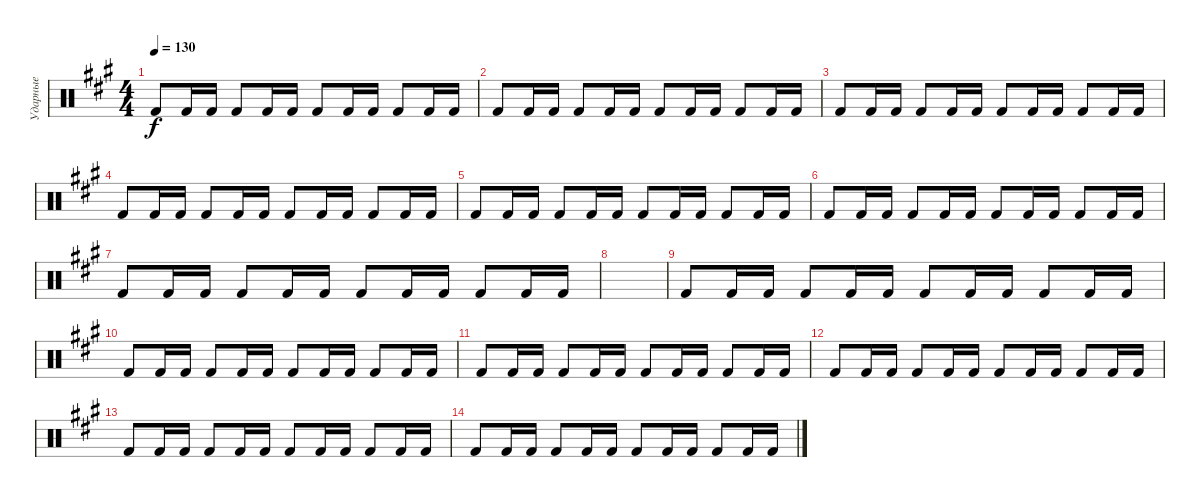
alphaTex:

\track ("Ударные" "Ударные") {instrument percussion}
\staff {score}
\articulation defaults
\ts (4 4)
\tempo 130
\clef neutral
\ks f#minor "Kick (hit) 2".8{dy f} "Kick (hit) 2".16 "Kick (hit) 2".16 "Kick (hit) 2".8 "Kick (hit) 2".16 "Kick (hit) 2".16 "Kick (hit) 2".8 "Kick (hit) 2".16 "Kick (hit) 2".16 "Kick (hit) 2".8 "Kick (hit) 2".16 "Kick (hit) 2".16
|
"Kick (hit) 2".8 "Kick (hit) 2".16 "Kick (hit) 2".16 "Kick (hit) 2".8 "Kick (hit) 2".16 "Kick (hit) 2".16 "Kick (hit) 2".8 "Kick (hit) 2".16 "Kick (hit) 2".16 "Kick (hit) 2".8 "Kick (hit) 2".16 "Kick (hit) 2".16 |
"Kick (hit) 2".8 "Kick (hit) 2".16 "Kick (hit) 2".16 "Kick (hit) 2".8 "Kick (hit) 2".16 "Kick (hit) 2".16 "Kick (hit) 2".8 "Kick (hit) 2".16 "Kick (hit) 2".16 "Kick (hit) 2".8 "Kick (hit) 2".16 "Kick (hit) 2".16 |
"Kick (hit) 2".8 "Kick (hit) 2".16 "Kick (hit) 2".16 "Kick (hit) 2".8 "Kick (hit) 2".16 "Kick (hit) 2".16 "Kick (hit) 2".8 "Kick (hit) 2".16 "Kick (hit) 2".16 "Kick (hit) 2".8 "Kick (hit) 2".16 "Kick (hit) 2".16 |
"Kick (hit) 2".8 "Kick (hit) 2".16 "Kick (hit) 2".16 "Kick (hit) 2".8 "Kick (hit) 2".16 "Kick (hit) 2".16 "Kick (hit) 2".8 "Kick (hit) 2".16 "Kick (hit) 2".16 "Kick (hit) 2".8 "Kick (hit) 2".16 "Kick (hit) 2".16 |
"Kick (hit) 2".8 "Kick (hit) 2".16 "Kick (hit) 2".16 "Kick (hit) 2".8 "Kick (hit) 2".16 "Kick (hit) 2".16 "Kick (hit) 2".8 "Kick (hit) 2".16 "Kick (hit) 2".16 "Kick (hit) 2".8 "Kick (hit) 2".16 "Kick (hit) 2".16 |
"Kick (hit) 2".8 "Kick (hit) 2".16 "Kick (hit) 2".16 "Kick (hit) 2".8 "Kick (hit) 2".16 "Kick (hit) 2".16 "Kick (hit) 2".8 "Kick (hit) 2".16 "Kick (hit) 2".16 "Kick (hit) 2".8 "Kick (hit) 2".16 "Kick (hit) 2".16 |
|
"Kick (hit) 2".8 "Kick (hit) 2".16 "Kick (hit) 2".16 "Kick (hit) 2".8 "Kick (hit) 2".16 "Kick (hit) 2".16 "Kick (hit) 2".8 "Kick (hit) 2".16 "Kick (hit) 2".16 "Kick (hit) 2".8 "Kick (hit) 2".16 "Kick (hit) 2".16 |
"Kick (hit) 2".8 "Kick (hit) 2".16 "Kick (hit) 2".16 "Kick (hit) 2".8 "Kick (hit) 2".16 "Kick (hit) 2".16 "Kick (hit) 2".8 "Kick (hit) 2".16 "Kick (hit) 2".16 "Kick (hit) 2".8 "Kick (hit) 2".16 "Kick (hit) 2".16 |
"Kick (hit) 2".8 "Kick (hit) 2".16 "Kick (hit) 2".16 "Kick (hit) 2".8 "Kick (hit) 2".16 "Kick (hit) 2".16 "Kick (hit) 2".8 "Kick (hit) 2".16 "Kick (hit) 2".16 "Kick (hit) 2".8 "Kick (hit) 2".16 "Kick (hit) 2".16 |
"Kick (hit) 2".8 "Kick (hit) 2".16 "Kick (hit) 2".16 "Kick (hit) 2".8 "Kick (hit) 2".16 "Kick (hit) 2".16 "Kick (hit) 2".8 "Kick (hit) 2".16 "Kick (hit) 2".16 "Kick (hit) 2".8 "Kick (hit) 2".16 "Kick (hit) 2".16 |
"Kick (hit) 2".8 "Kick (hit) 2".16 "Kick (hit) 2".16 "Kick (hit) 2".8 "Kick (hit) 2".16 "Kick (hit) 2".16 "Kick (hit) 2".8 "Kick (hit) 2".16 "Kick (hit) 2".16 "Kick (hit) 2".8 "Kick (hit) 2".16 "Kick (hit) 2".16 |
"Kick (hit) 2".8 "Kick (hit) 2".16 "Kick (hit) 2".16 "Kick (hit) 2".8 "Kick (hit) 2".16 "Kick (hit) 2".16 "Kick (hit) 2".8 "Kick (hit) 2".16 "Kick (hit) 2".16 "Kick (hit) 2".8 "Kick (hit) 2".16 "Kick (hit) 2".16
